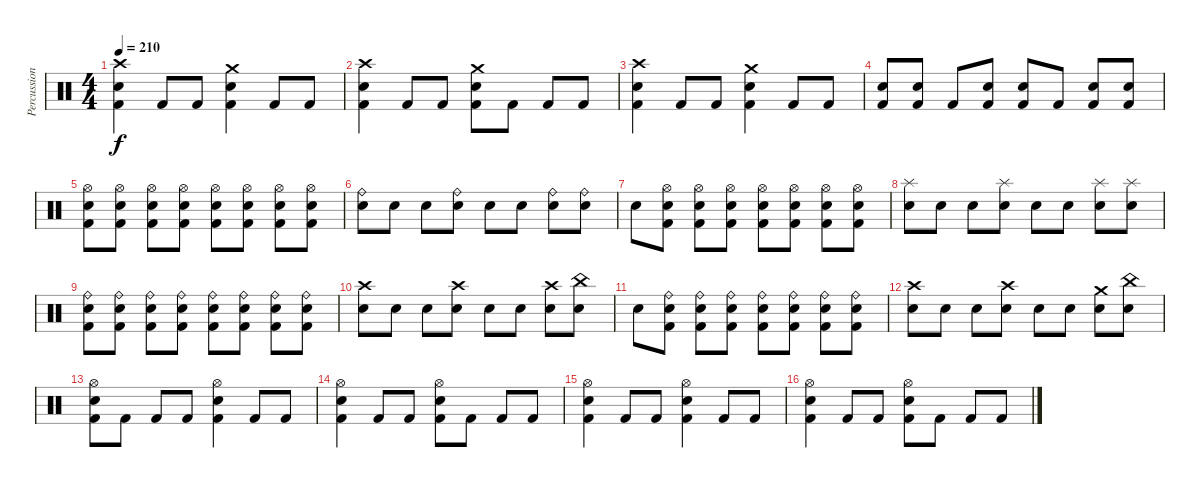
\track ("Percussion" "Percussion") {instrument percussion}
\staff {score}
\articulation defaults
\ts (4 4)
\tempo 210
\clef neutral
\ks c
("Crash high (hit)" "Electric Snare (hit)" "Kick (hit) 2").4{dy f} "Kick (hit) 2".8 "Kick (hit) 2".8 ("Crash medium (hit)" "Electric Snare (hit)" "Kick (hit) 2").4 "Kick (hit) 2".8 "Kick (hit) 2".8 |
("Crash high (hit)" "Electric Snare (hit)" "Kick (hit) 2").4 "Kick (hit) 2".8 "Kick (hit) 2".8 ("Crash medium (hit)" "Electric Snare (hit)" "Kick (hit) 2").8 "Kick (hit) 2".8 "Kick (hit) 2".8 "Kick (hit) 2".8 |
("Crash high (hit)" "Electric Snare (hit)" "Kick (hit) 2").4 "Kick (hit) 2".8 "Kick (hit) 2".8 ("Crash medium (hit)" "Electric Snare (hit)" "Kick (hit) 2").4 "Kick (hit) 2".8 "Kick (hit) 2".8 |
("Electric Snare (hit)" "Kick (hit) 2").8 ("Electric Snare (hit)" "Kick (hit) 2").8 "Kick (hit) 2".8 ("Electric Snare (hit)" "Kick (hit) 2").8 ("Electric Snare (hit)" "Kick (hit) 2").8 "Kick (hit) 2".8 ("Electric Snare (hit)" "Kick (hit) 2").8 ("Electric Snare (hit)" "Kick (hit) 2").8 |
("Hi-Hat (open)" "Electric Snare (hit)" "Kick (hit) 2").8 ("Hi-Hat (open)" "Electric Snare (hit)" "Kick (hit) 2").8 ("Hi-Hat (open)" "Electric Snare (hit)" "Kick (hit) 2").8 ("Hi-Hat (open)" "Electric Snare (hit)" "Kick (hit) 2").8 ("Hi-Hat (open)" "Electric Snare (hit)" "Kick (hit) 2").8 ("Hi-Hat (open)" "Electric Snare (hit)" "Kick (hit) 2").8 ("Hi-Hat (open)" "Electric Snare (hit)" "Kick (hit) 2").8 ("Hi-Hat (open)" "Electric Snare (hit)" "Kick (hit) 2").8 |
("Ride (bell)" "Electric Snare (hit)").8 "Electric Snare (hit)".8 "Electric Snare (hit)".8 ("Ride (bell)" "Electric Snare (hit)").8 "Electric Snare (hit)".8 "Electric Snare (hit)".8 ("Ride (bell)" "Electric Snare (hit)").8 ("Ride (bell)" "Electric Snare (hit)").8 |
"Electric Snare (hit)".8 ("Hi-Hat (open)" "Electric Snare (hit)" "Kick (hit) 2").8 ("Hi-Hat (open)" "Electric Snare (hit)" "Kick (hit) 2").8 ("Hi-Hat (open)" "Electric Snare (hit)" "Kick (hit) 2").8 ("Hi-Hat (open)" "Electric Snare (hit)" "Kick (hit) 2").8 ("Hi-Hat (open)" "Electric Snare (hit)" "Kick (hit) 2").8 ("Hi-Hat (open)" "Electric Snare (hit)" "Kick (hit) 2").8 ("Hi-Hat (open)" "Electric Snare (hit)" "Kick (hit) 2").8 |
("Splash (hit)" "Electric Snare (hit)").8 "Electric Snare (hit)".8 "Electric Snare (hit)".8 ("Splash (hit)" "Electric Snare (hit)").8 "Electric Snare (hit)".8 "Electric Snare (hit)".8 ("Splash (hit)" "Electric Snare (hit)").8 ("Splash (hit)" "Electric Snare (hit)").8 |
("Ride (bell)" "Electric Snare (hit)" "Kick (hit) 2").8 ("Ride (bell)" "Electric Snare (hit)" "Kick (hit) 2").8 ("Ride (bell)" "Electric Snare (hit)" "Kick (hit) 2").8 ("Ride (bell)" "Electric Snare (hit)" "Kick (hit) 2").8 ("Ride (bell)" "Electric Snare (hit)" "Kick (hit) 2").8 ("Ride (bell)" "Electric Snare (hit)" "Kick (hit) 2").8 ("Ride (bell)" "Electric Snare (hit)" "Kick (hit) 2").8 ("Ride (bell)" "Electric Snare (hit)" "Kick (hit) 2").8 |
("Crash high (hit)" "Electric Snare (hit)").8 "Electric Snare (hit)".8 "Electric Snare (hit)".8 ("Crash high (hit)" "Electric Snare (hit)").8 "Electric Snare (hit)".8 "Electric Snare (hit)".8 ("Crash high (hit)" "Electric Snare (hit)").8 ("China (hit)" "Electric Snare (hit)").8 |
"Electric Snare (hit)".8 ("Ride (bell)" "Electric Snare (hit)" "Kick (hit) 2").8 ("Ride (bell)" "Electric Snare (hit)" "Kick (hit) 2").8 ("Ride (bell)" "Electric Snare (hit)" "Kick (hit) 2").8 ("Ride (bell)" "Electric Snare (hit)" "Kick (hit) 2").8 ("Ride (bell)" "Electric Snare (hit)" "Kick (hit) 2").8 ("Ride (bell)" "Electric Snare (hit)" "Kick (hit) 2").8 ("Ride (bell)" "Electric Snare (hit)" "Kick (hit) 2").8 |
("Crash high (hit)" "Electric Snare (hit)").8 "Electric Snare (hit)".8 "Electric Snare (hit)".8 ("Crash high (hit)" "Electric Snare (hit)").8 "Electric Snare (hit)".8 "Electric Snare (hit)".8 ("Crash medium (hit)" "Electric Snare (hit)").8 ("China (hit)" "Electric Snare (hit)").8 |
("Hi-Hat (open)" "Electric Snare (hit)" "Kick (hit) 2").8 "Kick (hit) 2".8 "Kick (hit) 2".8 "Kick (hit) 2".8 ("Hi-Hat (open)" "Electric Snare (hit)" "Kick (hit) 2").4 "Kick (hit) 2".8 "Kick (hit) 2".8 |
("Hi-Hat (open)" "Electric Snare (hit)" "Kick (hit) 2").4 "Kick (hit) 2".8 "Kick (hit) 2".8 ("Hi-Hat (open)" "Electric Snare (hit)" "Kick (hit) 2").8 "Kick (hit) 2".8 "Kick (hit) 2".8 "Kick (hit) 2".8 |
("Hi-Hat (open)" "Electric Snare (hit)" "Kick (hit) 2").4 "Kick (hit) 2".8 "Kick (hit) 2".8 ("Hi-Hat (open)" "Electric Snare (hit)" "Kick (hit) 2").4 "Kick (hit) 2".8 "Kick (hit) 2".8 |
("Hi-Hat (open)" "Electric Snare (hit)" "Kick (hit) 2").4 "Kick (hit) 2".8 "Kick (hit) 2".8 ("Hi-Hat (open)" "Electric Snare (hit)" "Kick (hit) 2").8 "Kick (hit) 2".8 "Kick (hit) 2".8 "Kick (hit) 2".8
